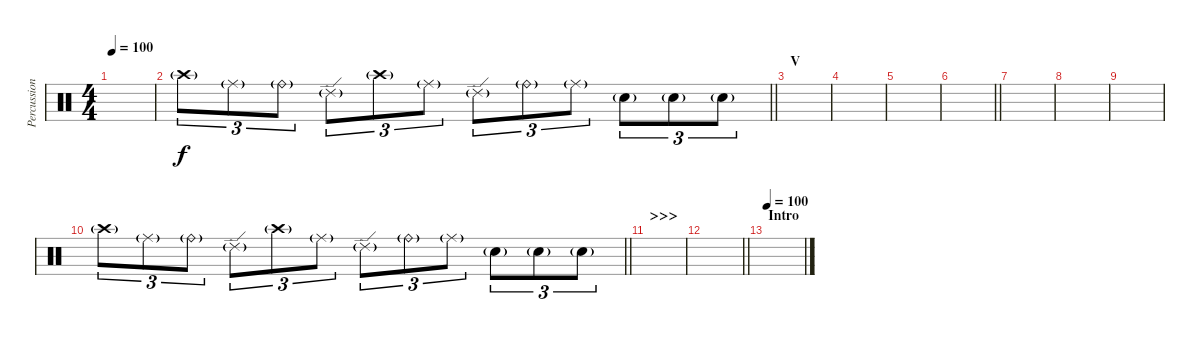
\track ("Percussion" "Percussion") {instrument percussion}
\staff {score}
\articulation defaults
\ts (4 4)
\tempo 100
\clef neutral
\ks c
|
\barLineRight lightlight "Crash high (hit)"{g}.8{tu (3 2)} "Ride (middle)"{g}.8{tu (3 2)} "Ride (bell)"{g}.8{tu (3 2)} "Ride (edge) 2"{g}.8{tu (3 2)} "Crash high (hit)"{g}.8{tu (3 2)} "Ride (middle)"{g}.8{tu (3 2)} "Ride (edge) 2"{g}.8{tu (3 2)} "Ride (bell)"{g}.8{tu (3 2)} "Ride (middle)"{g}.8{tu (3 2)} "Electric Snare (hit)"{g}.8{tu (3 2)} "Electric Snare (hit)"{g}.8{tu (3 2)} "Electric Snare (hit)"{g}.8{tu (3 2)}
|
\section ("" "V")
|
|
|
\barLineRight lightlight
|
|
|
|
\barLineRight lightlight "Crash high (hit)"{g}.8{tu (3 2)} "Ride (middle)"{g}.8{tu (3 2)} "Ride (bell)"{g}.8{tu (3 2)} "Ride (edge) 2"{g}.8{tu (3 2)} "Crash high (hit)"{g}.8{tu (3 2)} "Ride (middle)"{g}.8{tu (3 2)} "Ride (edge) 2"{g}.8{tu (3 2)} "Ride (bell)"{g}.8{tu (3 2)} "Ride (middle)"{g}.8{tu (3 2)} "Electric Snare (hit)"{g}.8{tu (3 2)} "Electric Snare (hit)"{g}.8{tu (3 2)} "Electric Snare (hit)"{g}.8{tu (3 2)}
|
\section ("" ">>>")
|
\barLineRight lightlight
|
\section ("" "Intro")
\tempo 100
